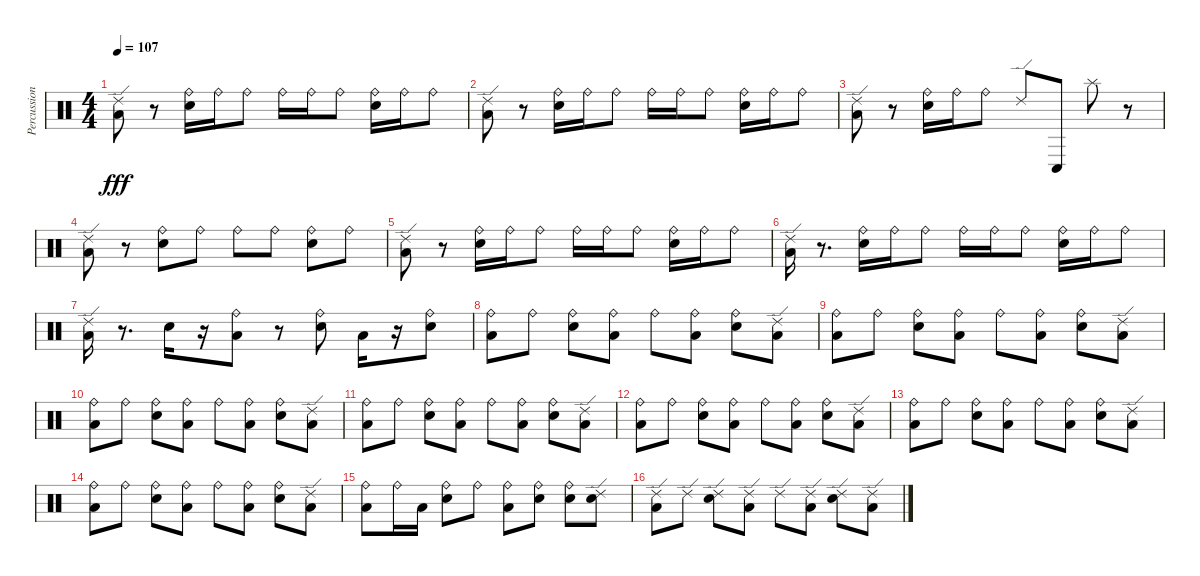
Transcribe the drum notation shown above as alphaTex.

\track ("Percussions" "Percussion") {instrument percussion}
\staff {score}
\articulation defaults
\ts (4 4)
\tempo 107
\clef neutral
\ks c
("Low Floor Tom (hit)" "Ride (edge) 2").8{dy fff} r.8 ("Electric Snare (hit)" "Ride (bell)").16 "Ride (bell)".16 "Ride (bell)".8 "Ride (bell)".16 "Ride (bell)".16 "Ride (bell)".8 ("Electric Snare (hit)" "Ride (bell)").16 "Ride (bell)".16 "Ride (bell)".8 |
("Low Floor Tom (hit)" "Ride (edge) 2").8 r.8 ("Electric Snare (hit)" "Ride (bell)").16 "Ride (bell)".16 "Ride (bell)".8 "Ride (bell)".16 "Ride (bell)".16 "Ride (bell)".8 ("Electric Snare (hit)" "Ride (bell)").16 "Ride (bell)".16 "Ride (bell)".8 |
("Low Floor Tom (hit)" "Ride (edge) 2").8 r.8 ("Ride (bell)" "Electric Snare (hit)").16 "Ride (bell)".16 "Ride (bell)".8 "Ride (edge) 2".8 "Conga low (hit)".8 "Splash (hit)".8 r.8 |
("Low Floor Tom (hit)" "Ride (edge) 2").8 r.8 ("Ride (bell)" "Electric Snare (hit)").8 "Ride (bell)".8 "Ride (bell)".8 "Ride (bell)".8 ("Ride (bell)" "Electric Snare (hit)").8 "Ride (bell)".8 |
("Low Floor Tom (hit)" "Ride (edge) 2").8 r.8 ("Ride (bell)" "Electric Snare (hit)").16 "Ride (bell)".16 "Ride (bell)".8 "Ride (bell)".16 "Ride (bell)".16 "Ride (bell)".8 ("Electric Snare (hit)" "Ride (bell)").16 "Ride (bell)".16 "Ride (bell)".8 |
("Low Floor Tom (hit)" "Ride (edge) 2").16 r.8{d} ("Electric Snare (hit)" "Ride (bell)").16 "Ride (bell)".16 "Ride (bell)".8 "Ride (bell)".16 "Ride (bell)".16 "Ride (bell)".8 ("Electric Snare (hit)" "Ride (bell)").16 "Ride (bell)".16 "Ride (bell)".8 |
("Low Floor Tom (hit)" "Ride (edge) 2").16 r.8{d} "Electric Snare (hit)".16 r.16 ("Ride (bell)" "Low Floor Tom (hit)").8 r.8 ("Ride (bell)" "Electric Snare (hit)").8 "Low Floor Tom (hit)".16 r.16 ("Ride (bell)" "Electric Snare (hit)").8 |
("Low Floor Tom (hit)" "Ride (bell)").8 "Ride (bell)".8 ("Electric Snare (hit)" "Ride (bell)").8 ("Low Floor Tom (hit)" "Ride (bell)").8 "Ride (bell)".8 ("Low Floor Tom (hit)" "Ride (bell)").8 ("Electric Snare (hit)" "Ride (bell)").8 ("Ride (edge) 2" "Low Floor Tom (hit)").8 |
("Low Floor Tom (hit)" "Ride (bell)").8 "Ride (bell)".8 ("Electric Snare (hit)" "Ride (bell)").8 ("Low Floor Tom (hit)" "Ride (bell)").8 "Ride (bell)".8 ("Low Floor Tom (hit)" "Ride (bell)").8 ("Electric Snare (hit)" "Ride (bell)").8 ("Ride (edge) 2" "Low Floor Tom (hit)").8 |
("Low Floor Tom (hit)" "Ride (bell)").8 "Ride (bell)".8 ("Electric Snare (hit)" "Ride (bell)").8 ("Low Floor Tom (hit)" "Ride (bell)").8 "Ride (bell)".8 ("Low Floor Tom (hit)" "Ride (bell)").8 ("Electric Snare (hit)" "Ride (bell)").8 ("Ride (edge) 2" "Low Floor Tom (hit)").8 |
("Low Floor Tom (hit)" "Ride (bell)").8 "Ride (bell)".8 ("Electric Snare (hit)" "Ride (bell)").8 ("Low Floor Tom (hit)" "Ride (bell)").8 "Ride (bell)".8 ("Low Floor Tom (hit)" "Ride (bell)").8 ("Electric Snare (hit)" "Ride (bell)").8 ("Ride (edge) 2" "Low Floor Tom (hit)").8 |
("Low Floor Tom (hit)" "Ride (bell)").8 "Ride (bell)".8 ("Electric Snare (hit)" "Ride (bell)").8 ("Low Floor Tom (hit)" "Ride (bell)").8 "Ride (bell)".8 ("Low Floor Tom (hit)" "Ride (bell)").8 ("Electric Snare (hit)" "Ride (bell)").8 ("Ride (edge) 2" "Low Floor Tom (hit)").8 |
("Low Floor Tom (hit)" "Ride (bell)").8 "Ride (bell)".8 ("Electric Snare (hit)" "Ride (bell)").8 ("Low Floor Tom (hit)" "Ride (bell)").8 "Ride (bell)".8 ("Low Floor Tom (hit)" "Ride (bell)").8 ("Electric Snare (hit)" "Ride (bell)").8 ("Ride (edge) 2" "Low Floor Tom (hit)").8 |
("Low Floor Tom (hit)" "Ride (bell)").8 "Ride (bell)".8 ("Electric Snare (hit)" "Ride (bell)").8 ("Low Floor Tom (hit)" "Ride (bell)").8 "Ride (bell)".8 ("Low Floor Tom (hit)" "Ride (bell)").8 ("Electric Snare (hit)" "Ride (bell)").8 ("Ride (edge) 2" "Low Floor Tom (hit)").8 |
("Low Floor Tom (hit)" "Ride (bell)").8 "Ride (bell)".16 "Low Floor Tom (hit)".16 ("Electric Snare (hit)" "Ride (bell)").8 "Ride (bell)".8 ("Low Floor Tom (hit)" "Ride (bell)").8 ("Electric Snare (hit)" "Ride (bell)").8 ("Electric Snare (hit)" "Ride (bell)").8 ("Electric Snare (hit)" "Ride (edge) 2").8 |
("Low Floor Tom (hit)" "Ride (edge) 2").8 "Ride (edge) 2".8 ("Electric Snare (hit)" "Ride (edge) 2").8 ("Low Floor Tom (hit)" "Ride (edge) 2").8 "Ride (edge) 2".8 ("Low Floor Tom (hit)" "Ride (edge) 2").8 ("Electric Snare (hit)" "Ride (edge) 2").8 ("Low Floor Tom (hit)" "Ride (edge) 2").8
